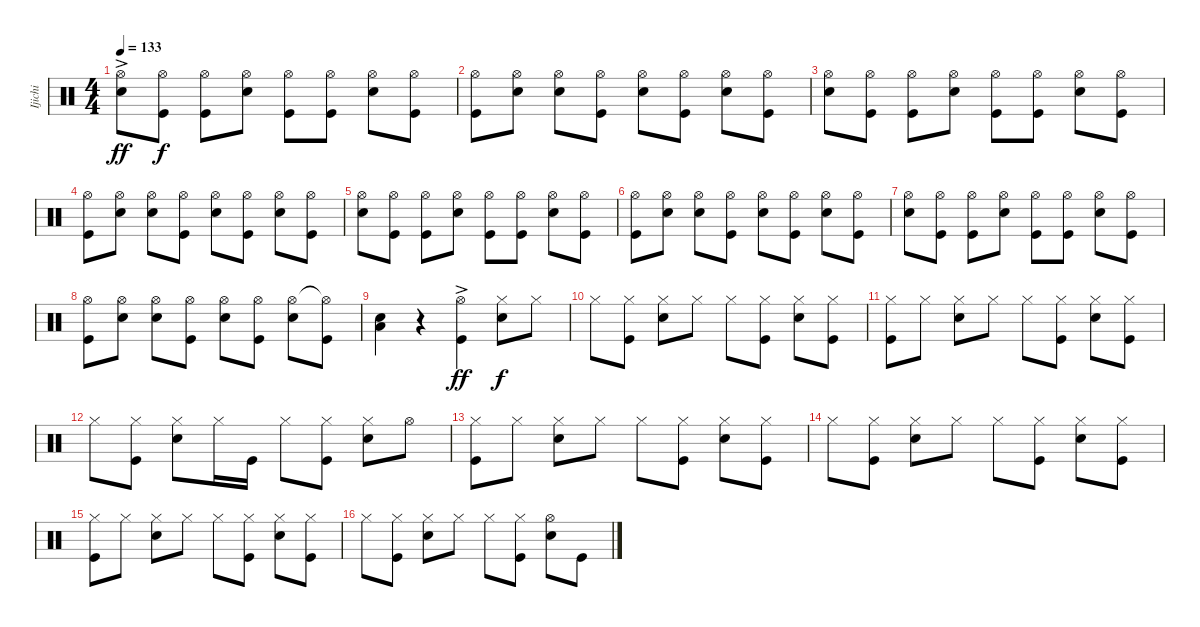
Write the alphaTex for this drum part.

\track ("Ijichi" "Ijichi") {instrument percussion}
\staff {score}
\articulation defaults
\ts (4 4)
\tempo 133
\clef neutral
\ks c
("Hi-Hat (open)"{ac} "Snare (hit) 2").8{dy ff} ("Hi-Hat (open)" "Kick (hit)").8{dy f} ("Hi-Hat (open)" "Kick (hit)").8 ("Hi-Hat (open)" "Snare (hit) 2").8 ("Hi-Hat (open)" "Kick (hit)").8 ("Hi-Hat (open)" "Kick (hit)").8 ("Hi-Hat (open)" "Snare (hit) 2").8 ("Hi-Hat (open)" "Kick (hit)").8 |
("Hi-Hat (open)" "Kick (hit)").8 ("Hi-Hat (open)" "Snare (hit) 2").8 ("Hi-Hat (open)" "Snare (hit) 2").8 ("Hi-Hat (open)" "Kick (hit)").8 ("Hi-Hat (open)" "Snare (hit) 2").8 ("Hi-Hat (open)" "Kick (hit)").8 ("Hi-Hat (open)" "Snare (hit) 2").8 ("Hi-Hat (open)" "Kick (hit)").8 |
("Hi-Hat (open)" "Snare (hit) 2").8 ("Hi-Hat (open)" "Kick (hit)").8 ("Hi-Hat (open)" "Kick (hit)").8 ("Hi-Hat (open)" "Snare (hit) 2").8 ("Hi-Hat (open)" "Kick (hit)").8 ("Hi-Hat (open)" "Kick (hit)").8 ("Hi-Hat (open)" "Snare (hit) 2").8 ("Hi-Hat (open)" "Kick (hit)").8 |
("Hi-Hat (open)" "Kick (hit)").8 ("Hi-Hat (open)" "Snare (hit) 2").8 ("Hi-Hat (open)" "Snare (hit) 2").8 ("Hi-Hat (open)" "Kick (hit)").8 ("Hi-Hat (open)" "Snare (hit) 2").8 ("Hi-Hat (open)" "Kick (hit)").8 ("Hi-Hat (open)" "Snare (hit) 2").8 ("Hi-Hat (open)" "Kick (hit)").8 |
("Hi-Hat (open)" "Snare (hit) 2").8 ("Hi-Hat (open)" "Kick (hit)").8 ("Hi-Hat (open)" "Kick (hit)").8 ("Hi-Hat (open)" "Snare (hit) 2").8 ("Hi-Hat (open)" "Kick (hit)").8 ("Hi-Hat (open)" "Kick (hit)").8 ("Hi-Hat (open)" "Snare (hit) 2").8 ("Hi-Hat (open)" "Kick (hit)").8 |
("Hi-Hat (open)" "Kick (hit)").8 ("Hi-Hat (open)" "Snare (hit) 2").8 ("Hi-Hat (open)" "Snare (hit) 2").8 ("Hi-Hat (open)" "Kick (hit)").8 ("Hi-Hat (open)" "Snare (hit) 2").8 ("Hi-Hat (open)" "Kick (hit)").8 ("Hi-Hat (open)" "Snare (hit) 2").8 ("Hi-Hat (open)" "Kick (hit)").8 |
("Hi-Hat (open)" "Snare (hit) 2").8 ("Hi-Hat (open)" "Kick (hit)").8 ("Hi-Hat (open)" "Kick (hit)").8 ("Hi-Hat (open)" "Snare (hit) 2").8 ("Hi-Hat (open)" "Kick (hit)").8 ("Hi-Hat (open)" "Kick (hit)").8 ("Hi-Hat (open)" "Snare (hit) 2").8 ("Hi-Hat (open)" "Kick (hit)").8 |
("Hi-Hat (open)" "Kick (hit)").8 ("Hi-Hat (open)" "Snare (hit) 2").8 ("Hi-Hat (open)" "Snare (hit) 2").8 ("Hi-Hat (open)" "Kick (hit)").8 ("Hi-Hat (open)" "Snare (hit) 2").8 ("Hi-Hat (open)" "Kick (hit)").8 ("Hi-Hat (open)" "Snare (hit) 2").8 ("Hi-Hat (open)"{t} "Kick (hit)").8 |
("Snare (hit) 2" "Low Tom (hit)").4 r.4 ("Hi-Hat (open)"{ac} "Kick (hit)").4{dy ff} ("Hi-Hat (closed)" "Snare (hit) 2").8{dy f} "Hi-Hat (closed)".8 |
"Hi-Hat (closed)".8 ("Hi-Hat (closed)" "Kick (hit)").8 ("Hi-Hat (closed)" "Snare (hit) 2").8 "Hi-Hat (closed)".8 "Hi-Hat (closed)".8 ("Hi-Hat (closed)" "Kick (hit)").8 ("Hi-Hat (closed)" "Snare (hit) 2").8 ("Hi-Hat (closed)" "Kick (hit)").8 |
("Hi-Hat (closed)" "Kick (hit)").8 "Hi-Hat (closed)".8 ("Hi-Hat (closed)" "Snare (hit) 2").8 "Hi-Hat (closed)".8 "Hi-Hat (closed)".8 ("Hi-Hat (closed)" "Kick (hit)").8 ("Hi-Hat (closed)" "Snare (hit) 2").8 ("Hi-Hat (closed)" "Kick (hit)").8 |
"Hi-Hat (closed)".8 ("Hi-Hat (closed)" "Kick (hit)").8 ("Hi-Hat (closed)" "Snare (hit) 2").8 "Hi-Hat (closed)".16 "Kick (hit)".16 "Hi-Hat (closed)".8 ("Hi-Hat (closed)" "Kick (hit)").8 ("Hi-Hat (closed)" "Snare (hit) 2").8 "Hi-Hat (open)".8 |
("Hi-Hat (closed)" "Kick (hit)").8 "Hi-Hat (closed)".8 ("Hi-Hat (closed)" "Snare (hit) 2").8 "Hi-Hat (closed)".8 "Hi-Hat (closed)".8 ("Hi-Hat (closed)" "Kick (hit)").8 ("Hi-Hat (closed)" "Snare (hit) 2").8 ("Hi-Hat (closed)" "Kick (hit)").8 |
"Hi-Hat (closed)".8 ("Hi-Hat (closed)" "Kick (hit)").8 ("Hi-Hat (closed)" "Snare (hit) 2").8 "Hi-Hat (closed)".8 "Hi-Hat (closed)".8 ("Hi-Hat (closed)" "Kick (hit)").8 ("Hi-Hat (closed)" "Snare (hit) 2").8 ("Hi-Hat (closed)" "Kick (hit)").8 |
("Hi-Hat (closed)" "Kick (hit)").8 "Hi-Hat (closed)".8 ("Hi-Hat (closed)" "Snare (hit) 2").8 "Hi-Hat (closed)".8 "Hi-Hat (closed)".8 ("Hi-Hat (closed)" "Kick (hit)").8 ("Hi-Hat (closed)" "Snare (hit) 2").8 ("Hi-Hat (closed)" "Kick (hit)").8 |
"Hi-Hat (closed)".8 ("Hi-Hat (closed)" "Kick (hit)").8 ("Hi-Hat (closed)" "Snare (hit) 2").8 "Hi-Hat (closed)".8 "Hi-Hat (closed)".8 ("Hi-Hat (closed)" "Kick (hit)").8 ("Hi-Hat (open)" "Snare (hit) 2").8 "Kick (hit)".8
